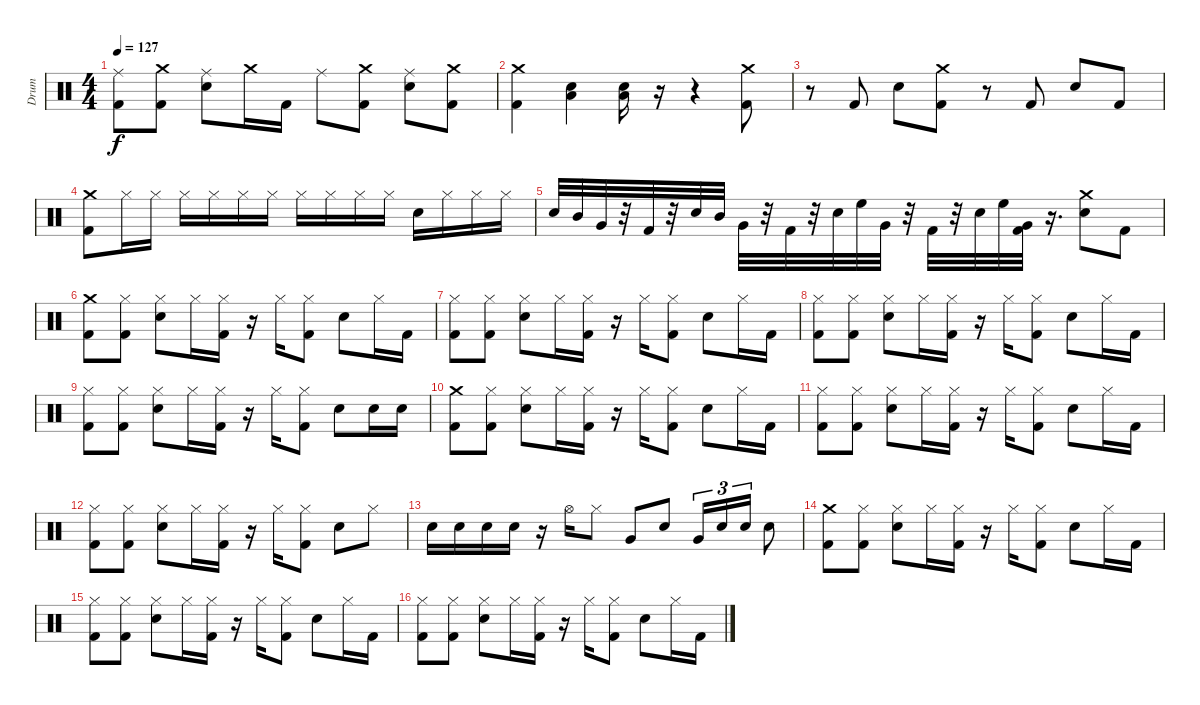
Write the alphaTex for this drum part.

\track ("Drum" "Drum") {instrument percussion}
\staff {score}
\articulation defaults
\ts (4 4)
\tempo 127
\clef neutral
\ks c
("Ride (middle)" "Kick (hit) 2").8{dy f} ("Crash medium (hit)" "Kick (hit) 2").8 ("Ride (middle)" "Snare (hit) 2").8 "Crash medium (hit)".16 "Kick (hit) 2".16 "Ride (middle)".8 ("Crash medium (hit)" "Kick (hit) 2").8 ("Ride (middle)" "Snare (hit) 2").8 ("Crash medium (hit)" "Kick (hit) 2").8 |
("Crash medium (hit)" "Kick (hit) 2").4 ("Snare (hit) 2" "Low Floor Tom (hit)").4 ("Low Floor Tom (hit)" "Snare (hit) 2").16 r.16 r.4 ("Crash medium (hit)" "Kick (hit) 2").8 |
r.8 "Kick (hit) 2".8 "Snare (hit) 2".8 ("Kick (hit) 2" "Crash medium (hit)").8 r.8 "Kick (hit) 2".8 "Snare (hit) 2".8 "Kick (hit) 2".8 |
("Kick (hit) 2" "Crash medium (hit)").8 "Hi-Hat (closed)".16 "Hi-Hat (closed)".16 "Hi-Hat (closed)".16 "Hi-Hat (closed)".16 "Hi-Hat (closed)".16 "Hi-Hat (closed)".16 "Hi-Hat (closed)".16 "Hi-Hat (closed)".16 "Hi-Hat (closed)".16 "Hi-Hat (closed)".16 "Snare (hit) 2".16 "Hi-Hat (closed)".16 "Hi-Hat (closed)".16 "Hi-Hat (closed)".16 |
"Snare (hit) 2".32 "Mid Tom (hit)".32 "Very Low Tom (hit)".32 r.32 "Kick (hit) 2".32 r.32 "Snare (hit) 2".32 "Mid Tom (hit)".32 "Very Low Tom (hit)".32 r.32 "Kick (hit) 2".32 r.32 "Snare (hit) 2".32 "High Floor Tom (hit)".32 "Very Low Tom (hit)".32 r.32 "Kick (hit) 2".32 r.32 "Snare (hit) 2".32 "High Floor Tom (hit)".32 ("Kick (hit) 2" "Very Low Tom (hit)").32 r.16{d} ("Crash medium (hit)" "Snare (hit) 2").8 "Kick (hit) 2".8 |
("Crash medium (hit)" "Kick (hit) 2").8 ("Hi-Hat (closed)" "Kick (hit) 2").8 ("Hi-Hat (closed)" "Snare (hit) 2").8 "Hi-Hat (closed)".16 ("Hi-Hat (closed)" "Kick (hit) 2").16 r.16 "Hi-Hat (closed)".16 ("Hi-Hat (closed)" "Kick (hit) 2").8 "Snare (hit) 2".8 "Hi-Hat (closed)".16 "Kick (hit) 2".16 |
("Kick (hit) 2" "Hi-Hat (closed)").8 ("Hi-Hat (closed)" "Kick (hit) 2").8 ("Hi-Hat (closed)" "Snare (hit) 2").8 "Hi-Hat (closed)".16 ("Hi-Hat (closed)" "Kick (hit) 2").16 r.16 "Hi-Hat (closed)".16 ("Hi-Hat (closed)" "Kick (hit) 2").8 "Snare (hit) 2".8 "Hi-Hat (closed)".16 "Kick (hit) 2".16 |
("Kick (hit) 2" "Hi-Hat (closed)").8 ("Hi-Hat (closed)" "Kick (hit) 2").8 ("Hi-Hat (closed)" "Snare (hit) 2").8 "Hi-Hat (closed)".16 ("Hi-Hat (closed)" "Kick (hit) 2").16 r.16 "Hi-Hat (closed)".16 ("Hi-Hat (closed)" "Kick (hit) 2").8 "Snare (hit) 2".8 "Hi-Hat (closed)".16 "Kick (hit) 2".16 |
("Kick (hit) 2" "Hi-Hat (closed)").8 ("Hi-Hat (closed)" "Kick (hit) 2").8 ("Hi-Hat (closed)" "Snare (hit) 2").8 "Hi-Hat (closed)".16 ("Hi-Hat (closed)" "Kick (hit) 2").16 r.16 "Hi-Hat (closed)".16 ("Hi-Hat (closed)" "Kick (hit) 2").8 "Snare (hit) 2".8 "Snare (hit) 2".16 "Snare (hit) 2".16 |
("Crash medium (hit)" "Kick (hit) 2").8 ("Hi-Hat (closed)" "Kick (hit) 2").8 ("Hi-Hat (closed)" "Snare (hit) 2").8 "Hi-Hat (closed)".16 ("Hi-Hat (closed)" "Kick (hit) 2").16 r.16 "Hi-Hat (closed)".16 ("Hi-Hat (closed)" "Kick (hit) 2").8 "Snare (hit) 2".8 "Hi-Hat (closed)".16 "Kick (hit) 2".16 |
("Kick (hit) 2" "Hi-Hat (closed)").8 ("Hi-Hat (closed)" "Kick (hit) 2").8 ("Hi-Hat (closed)" "Snare (hit) 2").8 "Hi-Hat (closed)".16 ("Hi-Hat (closed)" "Kick (hit) 2").16 r.16 "Hi-Hat (closed)".16 ("Hi-Hat (closed)" "Kick (hit) 2").8 "Snare (hit) 2".8 "Hi-Hat (closed)".16 "Kick (hit) 2".16 |
("Kick (hit) 2" "Hi-Hat (closed)").8 ("Hi-Hat (closed)" "Kick (hit) 2").8 ("Hi-Hat (closed)" "Snare (hit) 2").8 "Hi-Hat (closed)".16 ("Hi-Hat (closed)" "Kick (hit) 2").16 r.16 "Hi-Hat (closed)".16 ("Hi-Hat (closed)" "Kick (hit) 2").8 "Snare (hit) 2".8 "Hi-Hat (closed)".8 |
"Snare (hit) 2".16 "Snare (hit) 2".16 "Snare (hit) 2".16 "Snare (hit) 2".16 r.16 "Hi-Hat (open)".16 "Hi-Hat (closed)".8 "Very Low Tom (hit)".8 "Snare (hit) 2".8 "Very Low Tom (hit)".16{tu (3 2)} "Snare (hit) 2".16{tu (3 2)} "Snare (hit) 2".16{tu (3 2)} "Snare (hit) 2".8 |
("Crash medium (hit)" "Kick (hit) 2").8 ("Hi-Hat (closed)" "Kick (hit) 2").8 ("Hi-Hat (closed)" "Snare (hit) 2").8 "Hi-Hat (closed)".16 ("Hi-Hat (closed)" "Kick (hit) 2").16 r.16 "Hi-Hat (closed)".16 ("Hi-Hat (closed)" "Kick (hit) 2").8 "Snare (hit) 2".8 "Hi-Hat (closed)".16 "Kick (hit) 2".16 |
("Kick (hit) 2" "Hi-Hat (closed)").8 ("Hi-Hat (closed)" "Kick (hit) 2").8 ("Hi-Hat (closed)" "Snare (hit) 2").8 "Hi-Hat (closed)".16 ("Hi-Hat (closed)" "Kick (hit) 2").16 r.16 "Hi-Hat (closed)".16 ("Hi-Hat (closed)" "Kick (hit) 2").8 "Snare (hit) 2".8 "Hi-Hat (closed)".16 "Kick (hit) 2".16 |
("Kick (hit) 2" "Hi-Hat (closed)").8 ("Hi-Hat (closed)" "Kick (hit) 2").8 ("Hi-Hat (closed)" "Snare (hit) 2").8 "Hi-Hat (closed)".16 ("Hi-Hat (closed)" "Kick (hit) 2").16 r.16 "Hi-Hat (closed)".16 ("Hi-Hat (closed)" "Kick (hit) 2").8 "Snare (hit) 2".8 "Hi-Hat (closed)".16 "Kick (hit) 2".16
